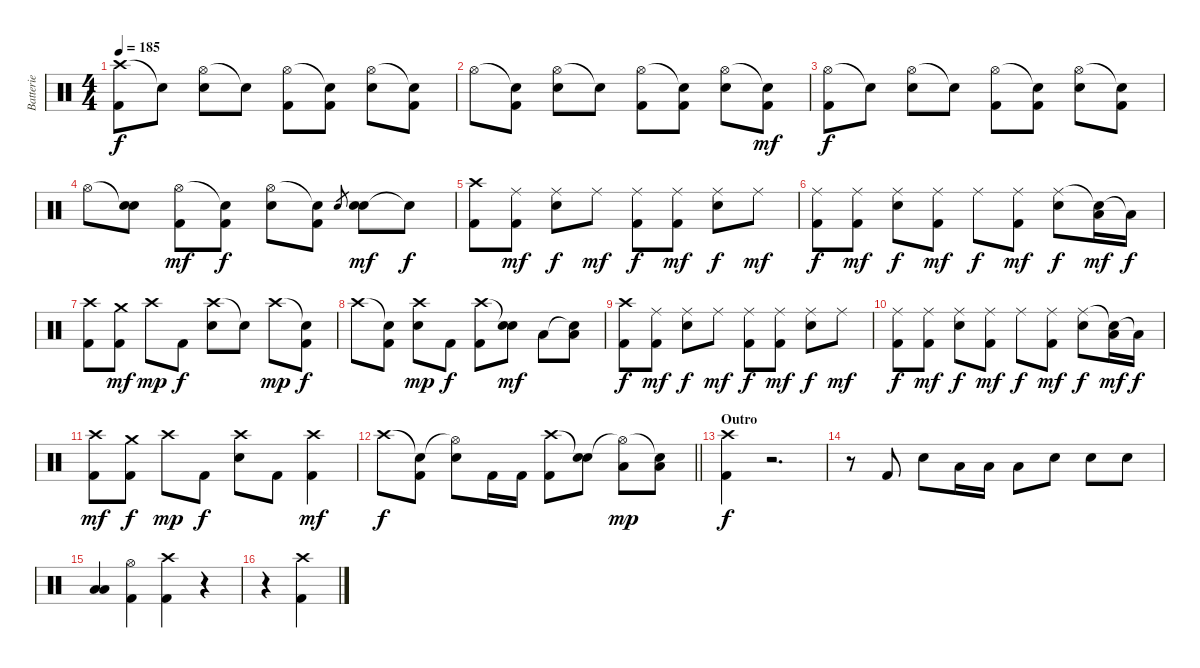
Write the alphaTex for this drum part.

\track ("Batterie" "Batterie") {instrument percussion}
\staff {score}
\articulation defaults
\ts (4 4)
\tempo 185
\clef neutral
\ks c
("Crash high (hit)" "Kick (hit) 2").8{dy f} "Snare (hit)"{t}.8 ("Hi-Hat (open)" "Electric Snare (hit)").8 "Snare (hit)"{t}.8 ("Hi-Hat (open)" "Kick (hit) 2").8 ("Snare (hit)"{t} "Kick (hit) 2").8 ("Hi-Hat (open)" "Electric Snare (hit)").8 ("Snare (hit)"{t} "Kick (hit) 2").8 |
"Hi-Hat (open)".8 ("Snare (hit)"{t} "Kick (hit) 2").8 ("Hi-Hat (open)" "Electric Snare (hit)").8 "Snare (hit)"{t}.8 ("Hi-Hat (open)" "Kick (hit) 2").8 ("Snare (hit)"{t} "Kick (hit) 2").8 ("Hi-Hat (open)" "Electric Snare (hit)").8 ("Snare (hit)"{t} "Kick (hit) 2").8{dy mf} |
("Hi-Hat (open)" "Kick (hit) 2").8{dy f} "Snare (hit)"{t}.8 ("Hi-Hat (open)" "Electric Snare (hit)").8 "Snare (hit)"{t}.8 ("Hi-Hat (open)" "Kick (hit) 2").8 ("Snare (hit)"{t} "Kick (hit) 2").8 ("Hi-Hat (open)" "Electric Snare (hit)").8 ("Snare (hit)"{t} "Kick (hit) 2").8 |
"Hi-Hat (open)".8 ("Snare (hit)"{t} "Electric Snare (hit)").8 ("Hi-Hat (open)" "Kick (hit) 2").8{dy mf} ("Snare (hit)"{t} "Kick (hit) 2").8{dy f} ("Hi-Hat (open)" "Electric Snare (hit)").8 ("Snare (hit)"{t} "Kick (hit) 2").8 "Electric Snare (hit)".8{gr} ("Electric Snare (hit)" "Electric Snare (hit)").8{dy mf} "Snare (hit)"{t}.8{dy f} |
("Crash high (hit)" "Kick (hit) 2").8 ("Ride (middle)" "Kick (hit) 2").8{dy mf} ("Ride (middle)" "Electric Snare (hit)").8{dy f} "Ride (middle)".8{dy mf} ("Ride (middle)" "Kick (hit) 2").8{dy f} ("Ride (middle)" "Kick (hit) 2").8{dy mf} ("Ride (middle)" "Electric Snare (hit)").8{dy f} "Ride (middle)".8{dy mf} |
("Ride (middle)" "Kick (hit) 2").8{dy f} ("Ride (middle)" "Kick (hit) 2").8{dy mf} ("Ride (middle)" "Electric Snare (hit)").8{dy f} ("Ride (middle)" "Kick (hit) 2").8{dy mf} "Ride (middle)".8{dy f} ("Ride (middle)" "Kick (hit) 2").8{dy mf} ("Ride (middle)" "Electric Snare (hit)").8{dy f} ("Snare (hit)"{t} "Low Floor Tom (hit)").16{dy mf} "Low Floor Tom (hit)"{t}.16{dy f} |
("Crash high (hit)" "Kick (hit) 2").8 ("Crash medium (hit)" "Kick (hit) 2").8{dy mf} "Crash high (hit)".8{dy mp} "Kick (hit) 2".8{dy f} ("Crash high (hit)" "Electric Snare (hit)").8 "Snare (hit)"{t}.8 "Crash high (hit)".8{dy mp} ("Snare (hit)"{t} "Kick (hit) 2").8{dy f} |
"Crash high (hit)".8 ("Snare (hit)"{t} "Kick (hit) 2").8 ("Crash high (hit)" "Electric Snare (hit)").8{dy mp} "Kick (hit) 2".8{dy f} ("Crash high (hit)" "Kick (hit) 2").8 ("Snare (hit)"{t} "Electric Snare (hit)").8{dy mf} "Low Tom (hit)".8 ("Snare (hit)"{t} "Low Floor Tom (hit)").8 |
("Crash high (hit)" "Kick (hit) 2").8{dy f} ("Ride (middle)" "Kick (hit) 2").8{dy mf} ("Ride (middle)" "Electric Snare (hit)").8{dy f} "Ride (middle)".8{dy mf} ("Ride (middle)" "Kick (hit) 2").8{dy f} ("Ride (middle)" "Kick (hit) 2").8{dy mf} ("Ride (middle)" "Electric Snare (hit)").8{dy f} "Ride (middle)".8{dy mf} |
("Ride (middle)" "Kick (hit) 2").8{dy f} ("Ride (middle)" "Kick (hit) 2").8{dy mf} ("Ride (middle)" "Electric Snare (hit)").8{dy f} ("Ride (middle)" "Kick (hit) 2").8{dy mf} "Ride (middle)".8{dy f} ("Ride (middle)" "Kick (hit) 2").8{dy mf} ("Ride (middle)" "Electric Snare (hit)").8{dy f} ("Snare (hit)"{t} "Low Floor Tom (hit)").16{dy mf} "Low Floor Tom (hit)"{t}.16{dy f} |
("Crash high (hit)" "Kick (hit) 2").8{dy mf} ("Crash medium (hit)" "Kick (hit) 2").8{dy f} "Crash high (hit)".8{dy mp} "Kick (hit) 2".8{dy f} ("Crash high (hit)" "Electric Snare (hit)").8 "Kick (hit) 2".8 ("Crash high (hit)" "Kick (hit) 2").4{dy mf} |
\barLineRight lightlight "Crash high (hit)".8{dy f}
("Snare (hit)"{t} "Kick (hit) 2").8 ("Hi-Hat (open)"{t} "Electric Snare (hit)").8 "Kick (hit) 2".16 "Kick (hit) 2".16 ("Crash high (hit)" "Kick (hit) 2").8 ("Snare (hit)"{t} "Electric Snare (hit)").8 ("Hi-Hat (open)"{t} "Low Tom (hit)").8{dy mp} ("Snare (hit)"{t} "Low Floor Tom (hit)").8 |
\section ("" "Outro")
("Crash high (hit)" "Kick (hit) 2").4{dy f} r.2{d} |
r.8 "Kick (hit) 2".8 "Electric Snare (hit)".8 "Low Tom (hit)".16 "Low Tom (hit)".16 "Low Floor Tom (hit)".8 "Electric Snare (hit)".8 "Electric Snare (hit)".8 "Electric Snare (hit)".8 |
("Low Tom (hit)" "Low Floor Tom (hit)").4 ("Hi-Hat (open)" "Kick (hit) 2").4 ("Crash high (hit)" "Kick (hit) 2").4 r.4 |
r.4 ("Crash high (hit)" "Kick (hit) 2").4
